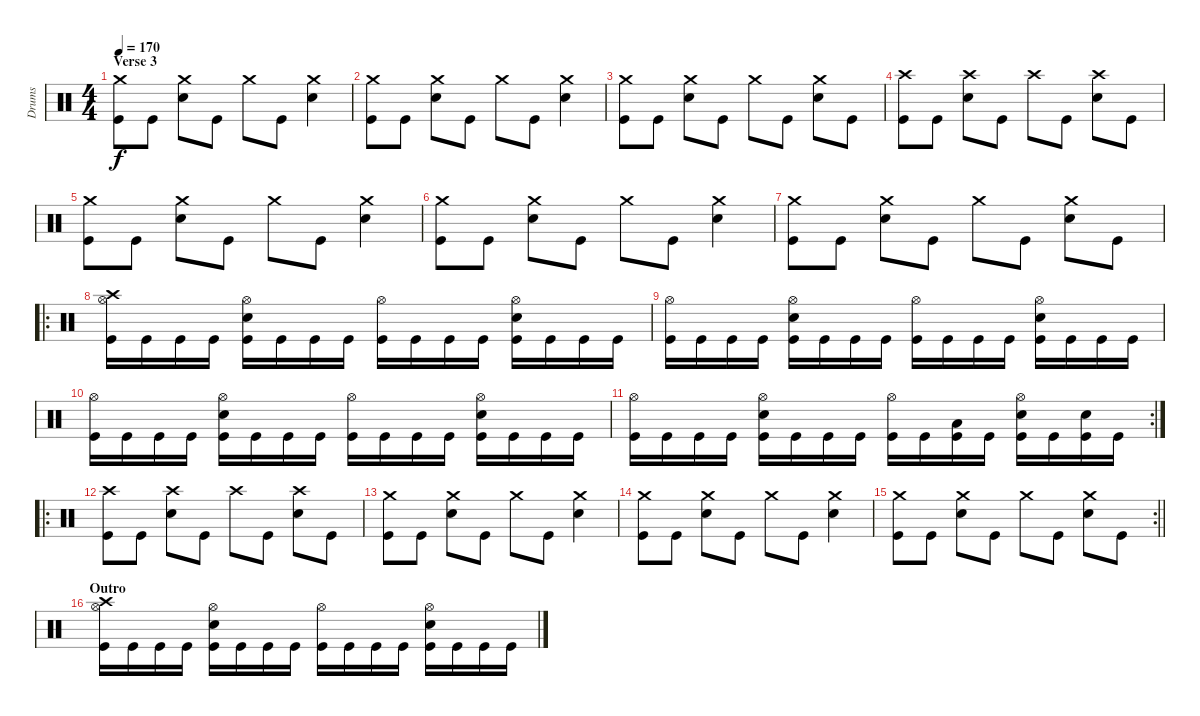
\track ("Drums" "Drums") {instrument percussion}
\staff {score}
\articulation defaults
\ts (4 4)
\section ("" "Verse 3")
\tempo 170
\clef neutral
\ks c
("Crash medium (hit)" "Kick (hit)").8{dy f} "Kick (hit)".8 ("Crash medium (hit)" "Snare (hit) 2").8 "Kick (hit)".8 "Crash medium (hit)".8 "Kick (hit)".8 ("Crash medium (hit)" "Snare (hit) 2").4 |
("Crash medium (hit)" "Kick (hit)").8 "Kick (hit)".8 ("Crash medium (hit)" "Snare (hit) 2").8 "Kick (hit)".8 "Crash medium (hit)".8 "Kick (hit)".8 ("Crash medium (hit)" "Snare (hit) 2").4 |
("Crash medium (hit)" "Kick (hit)").8 "Kick (hit)".8 ("Crash medium (hit)" "Snare (hit) 2").8 "Kick (hit)".8 "Crash medium (hit)".8 "Kick (hit)".8 ("Crash medium (hit)" "Snare (hit) 2").8 "Kick (hit)".8 |
("Crash high (hit)" "Kick (hit)").8 "Kick (hit)".8 ("Crash high (hit)" "Snare (hit) 2").8 "Kick (hit)".8 "Crash high (hit)".8 "Kick (hit)".8 ("Crash high (hit)" "Snare (hit) 2").8 "Kick (hit)".8 |
("Crash medium (hit)" "Kick (hit)").8 "Kick (hit)".8 ("Crash medium (hit)" "Snare (hit) 2").8 "Kick (hit)".8 "Crash medium (hit)".8 "Kick (hit)".8 ("Crash medium (hit)" "Snare (hit) 2").4 |
("Crash medium (hit)" "Kick (hit)").8 "Kick (hit)".8 ("Crash medium (hit)" "Snare (hit) 2").8 "Kick (hit)".8 "Crash medium (hit)".8 "Kick (hit)".8 ("Crash medium (hit)" "Snare (hit) 2").4 |
("Crash medium (hit)" "Kick (hit)").8 "Kick (hit)".8 ("Crash medium (hit)" "Snare (hit) 2").8 "Kick (hit)".8 "Crash medium (hit)".8 "Kick (hit)".8 ("Crash medium (hit)" "Snare (hit) 2").8 "Kick (hit)".8 |
\ro
("Hi-Hat (open)" "Crash high (hit)" "Kick (hit)").16 "Kick (hit)".16 "Kick (hit)".16 "Kick (hit)".16 ("Hi-Hat (open)" "Snare (hit) 2" "Kick (hit)").16 "Kick (hit)".16 "Kick (hit)".16 "Kick (hit)".16 ("Hi-Hat (open)" "Kick (hit)").16 "Kick (hit)".16 "Kick (hit)".16 "Kick (hit)".16 ("Hi-Hat (open)" "Snare (hit) 2" "Kick (hit)").16 "Kick (hit)".16 "Kick (hit)".16 "Kick (hit)".16 |
("Hi-Hat (open)" "Kick (hit)").16 "Kick (hit)".16 "Kick (hit)".16 "Kick (hit)".16 ("Hi-Hat (open)" "Snare (hit) 2" "Kick (hit)").16 "Kick (hit)".16 "Kick (hit)".16 "Kick (hit)".16 ("Hi-Hat (open)" "Kick (hit)").16 "Kick (hit)".16 "Kick (hit)".16 "Kick (hit)".16 ("Hi-Hat (open)" "Snare (hit) 2" "Kick (hit)").16 "Kick (hit)".16 "Kick (hit)".16 "Kick (hit)".16 |
("Hi-Hat (open)" "Kick (hit)").16 "Kick (hit)".16 "Kick (hit)".16 "Kick (hit)".16 ("Hi-Hat (open)" "Snare (hit) 2" "Kick (hit)").16 "Kick (hit)".16 "Kick (hit)".16 "Kick (hit)".16 ("Hi-Hat (open)" "Kick (hit)").16 "Kick (hit)".16 "Kick (hit)".16 "Kick (hit)".16 ("Hi-Hat (open)" "Snare (hit) 2" "Kick (hit)").16 "Kick (hit)".16 "Kick (hit)".16 "Kick (hit)".16 |
\rc 2
("Hi-Hat (open)" "Kick (hit)").16 "Kick (hit)".16 "Kick (hit)".16 "Kick (hit)".16 ("Hi-Hat (open)" "Snare (hit) 2" "Kick (hit)").16 "Kick (hit)".16 "Kick (hit)".16 "Kick (hit)".16 ("Hi-Hat (open)" "Kick (hit)").16 "Kick (hit)".16 ("Low Floor Tom (hit)" "Kick (hit)").16 "Kick (hit)".16 ("Hi-Hat (open)" "Snare (hit) 2" "Kick (hit)").16 "Kick (hit)".16 ("Snare (hit) 2" "Kick (hit)").16 "Kick (hit)".16 |
\ro
("Crash high (hit)" "Kick (hit)").8 "Kick (hit)".8 ("Crash high (hit)" "Snare (hit) 2").8 "Kick (hit)".8 "Crash high (hit)".8 "Kick (hit)".8 ("Crash high (hit)" "Snare (hit) 2").8 "Kick (hit)".8 |
("Crash medium (hit)" "Kick (hit)").8 "Kick (hit)".8 ("Crash medium (hit)" "Snare (hit) 2").8 "Kick (hit)".8 "Crash medium (hit)".8 "Kick (hit)".8 ("Crash medium (hit)" "Snare (hit) 2").4 |
("Crash medium (hit)" "Kick (hit)").8 "Kick (hit)".8 ("Crash medium (hit)" "Snare (hit) 2").8 "Kick (hit)".8 "Crash medium (hit)".8 "Kick (hit)".8 ("Crash medium (hit)" "Snare (hit) 2").4 |
\rc 2
\barLineRight lightlight
("Crash medium (hit)" "Kick (hit)").8 "Kick (hit)".8 ("Crash medium (hit)" "Snare (hit) 2").8 "Kick (hit)".8 "Crash medium (hit)".8 "Kick (hit)".8 ("Crash medium (hit)" "Snare (hit) 2").8 "Kick (hit)".8 |
\section ("" "Outro")
("Hi-Hat (open)" "Crash high (hit)" "Kick (hit)").16 "Kick (hit)".16 "Kick (hit)".16 "Kick (hit)".16 ("Hi-Hat (open)" "Snare (hit) 2" "Kick (hit)").16 "Kick (hit)".16 "Kick (hit)".16 "Kick (hit)".16 ("Hi-Hat (open)" "Kick (hit)").16 "Kick (hit)".16 "Kick (hit)".16 "Kick (hit)".16 ("Hi-Hat (open)" "Snare (hit) 2" "Kick (hit)").16 "Kick (hit)".16 "Kick (hit)".16 "Kick (hit)".16
